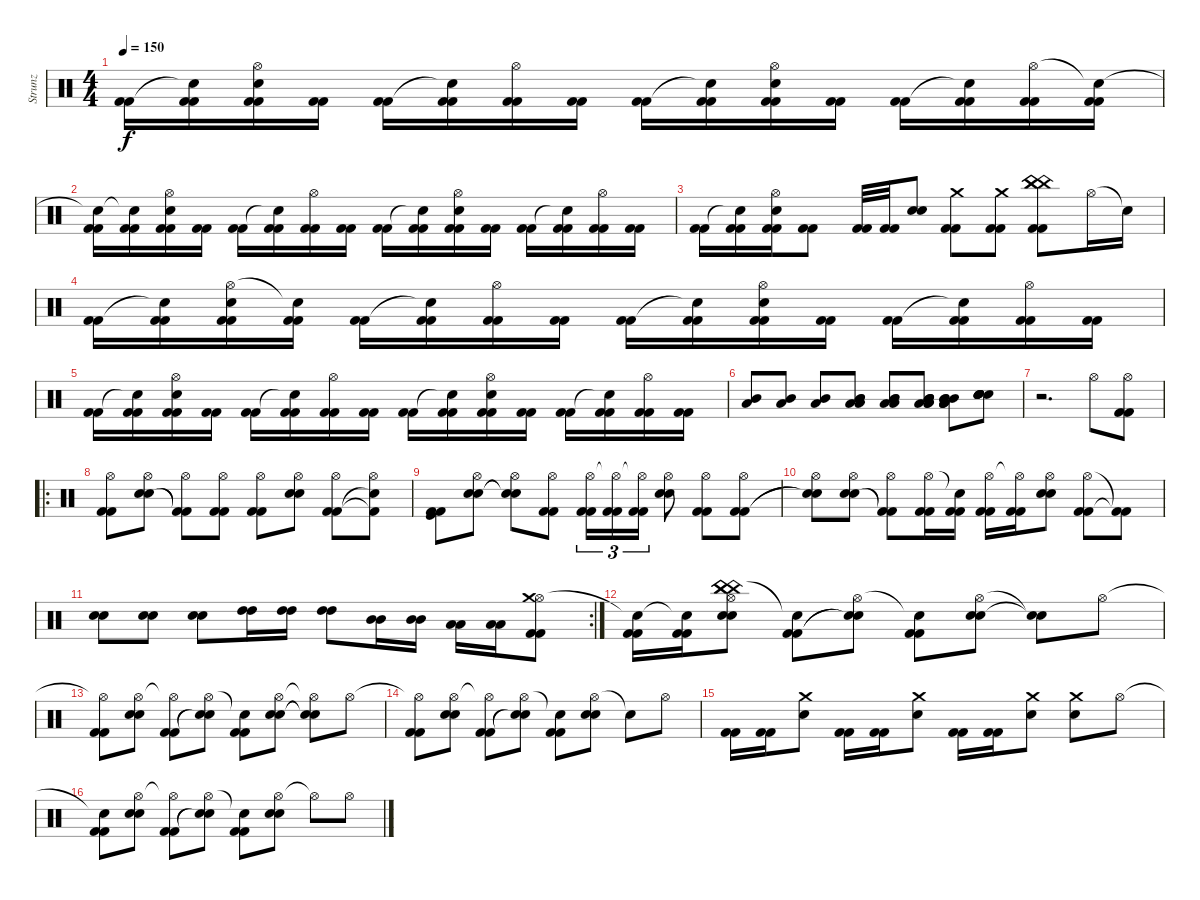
\track ("Strunz" "Strunz") {instrument percussion}
\staff {score}
\articulation defaults
\ts (4 4)
\tempo 150
\clef neutral
\ks c
("Kick (hit) 2" "Kick (hit) 2").16{dy f} ("Snare (hit)"{t} "Kick (hit) 2" "Kick (hit) 2").16 ("Hi-Hat (open)" "Snare (hit) 2" "Kick (hit) 2" "Kick (hit) 2").16 ("Kick (hit) 2" "Kick (hit) 2").16 ("Kick (hit) 2" "Kick (hit) 2").16 ("Snare (hit)"{t} "Kick (hit) 2" "Kick (hit) 2").16 ("Hi-Hat (open)" "Kick (hit) 2" "Kick (hit) 2").16 ("Kick (hit) 2" "Kick (hit) 2").16 ("Kick (hit) 2" "Kick (hit) 2").16 ("Snare (hit)"{t} "Kick (hit) 2" "Kick (hit) 2").16 ("Hi-Hat (open)" "Snare (hit) 2" "Kick (hit) 2" "Kick (hit) 2").16 ("Kick (hit) 2" "Kick (hit) 2").16 ("Kick (hit) 2" "Kick (hit) 2").16 ("Snare (hit)"{t} "Kick (hit) 2" "Kick (hit) 2").16 ("Hi-Hat (open)" "Kick (hit) 2" "Kick (hit) 2").16 ("Snare (hit)"{t} "Kick (hit) 2" "Kick (hit) 2").16 |
("Snare (hit)"{t} "Kick (hit) 2" "Kick (hit) 2").16 ("Snare (hit)"{t} "Kick (hit) 2" "Kick (hit) 2").16 ("Hi-Hat (open)" "Snare (hit) 2" "Kick (hit) 2" "Kick (hit) 2").16 ("Kick (hit) 2" "Kick (hit) 2").16 ("Kick (hit) 2" "Kick (hit) 2").16 ("Snare (hit)"{t} "Kick (hit) 2" "Kick (hit) 2").16 ("Hi-Hat (open)" "Kick (hit) 2" "Kick (hit) 2").16 ("Kick (hit) 2" "Kick (hit) 2").16 ("Kick (hit) 2" "Kick (hit) 2").16 ("Snare (hit)"{t} "Kick (hit) 2" "Kick (hit) 2").16 ("Hi-Hat (open)" "Snare (hit) 2" "Kick (hit) 2" "Kick (hit) 2").16 ("Kick (hit) 2" "Kick (hit) 2").16 ("Kick (hit) 2" "Kick (hit) 2").16 ("Snare (hit)"{t} "Kick (hit) 2" "Kick (hit) 2").16 ("Hi-Hat (open)" "Kick (hit) 2" "Kick (hit) 2").16 ("Kick (hit) 2" "Kick (hit) 2").16 |
("Kick (hit) 2" "Kick (hit) 2").16 ("Snare (hit)"{t} "Kick (hit) 2" "Kick (hit) 2").16 ("Hi-Hat (open)" "Snare (hit) 2" "Kick (hit) 2" "Kick (hit) 2").16 ("Kick (hit) 2" "Kick (hit) 2").8 ("Kick (hit) 2" "Kick (hit) 2").32 ("Kick (hit) 2" "Kick (hit) 2").32 ("Snare (hit) 2" "Snare (hit) 2").8 ("Crash medium (hit)" "Kick (hit) 2" "Kick (hit) 2").8 ("Crash medium (hit)" "Kick (hit) 2" "Kick (hit) 2").8 ("China (hit)" "China (hit)" "China (hit)" "Kick (hit) 2" "Kick (hit) 2").8 "Hi-Hat (open)".16 "Snare (hit)"{t}.16 |
("Kick (hit) 2" "Kick (hit) 2").16 ("Snare (hit)"{t} "Kick (hit) 2" "Kick (hit) 2").16 ("Hi-Hat (open)" "Snare (hit) 2" "Kick (hit) 2" "Kick (hit) 2").16 ("Snare (hit)"{t} "Kick (hit) 2" "Kick (hit) 2").16 ("Kick (hit) 2" "Kick (hit) 2").16 ("Snare (hit)"{t} "Kick (hit) 2" "Kick (hit) 2").16 ("Hi-Hat (open)" "Kick (hit) 2" "Kick (hit) 2").16 ("Kick (hit) 2" "Kick (hit) 2").16 ("Kick (hit) 2" "Kick (hit) 2").16 ("Snare (hit)"{t} "Kick (hit) 2" "Kick (hit) 2").16 ("Hi-Hat (open)" "Snare (hit) 2" "Kick (hit) 2" "Kick (hit) 2").16 ("Kick (hit) 2" "Kick (hit) 2").16 ("Kick (hit) 2" "Kick (hit) 2").16 ("Snare (hit)"{t} "Kick (hit) 2" "Kick (hit) 2").16 ("Hi-Hat (open)" "Kick (hit) 2" "Kick (hit) 2").16 ("Kick (hit) 2" "Kick (hit) 2").16 |
("Kick (hit) 2" "Kick (hit) 2").16 ("Snare (hit)"{t} "Kick (hit) 2" "Kick (hit) 2").16 ("Hi-Hat (open)" "Snare (hit) 2" "Kick (hit) 2" "Kick (hit) 2").16 ("Kick (hit) 2" "Kick (hit) 2").16 ("Kick (hit) 2" "Kick (hit) 2").16 ("Snare (hit)"{t} "Kick (hit) 2" "Kick (hit) 2").16 ("Hi-Hat (open)" "Kick (hit) 2" "Kick (hit) 2").16 ("Kick (hit) 2" "Kick (hit) 2").16 ("Kick (hit) 2" "Kick (hit) 2").16 ("Snare (hit)"{t} "Kick (hit) 2" "Kick (hit) 2").16 ("Hi-Hat (open)" "Snare (hit) 2" "Kick (hit) 2" "Kick (hit) 2").16 ("Kick (hit) 2" "Kick (hit) 2").16 ("Kick (hit) 2" "Kick (hit) 2").16 ("Snare (hit)"{t} "Kick (hit) 2" "Kick (hit) 2").16 ("Hi-Hat (open)" "Kick (hit) 2" "Kick (hit) 2").16 ("Kick (hit) 2" "Kick (hit) 2").16 |
("Mid Tom (hit)" "Low Tom (hit)").8 ("Mid Tom (hit)" "Low Tom (hit)").8 ("Mid Tom (hit)" "Low Tom (hit)").8 ("Low Tom (hit)" "Low Tom (hit)" "Mid Tom (hit)" "Mid Tom (hit)").8 ("Low Tom (hit)" "Low Tom (hit)" "Mid Tom (hit)" "Mid Tom (hit)").8 ("Low Tom (hit)" "Low Tom (hit)" "Low Tom (hit)" "Mid Tom (hit)" "Mid Tom (hit)" "Mid Tom (hit)").8 ("Low Tom (hit)" "Low Tom (hit)" "Low Tom (hit)" "Mid Tom (hit)" "Mid Tom (hit)" "Mid Tom (hit)").8 ("Snare (hit) 2" "Snare (hit) 2" "Snare (hit) 2" "Snare (hit) 2" "Snare (hit) 2" "Snare (hit) 2").8 |
r.2{d} "Hi-Hat (open)".8 ("Hi-Hat (open)" "Kick (hit) 2" "Kick (hit) 2").8 |
\ro
("Hi-Hat (open)" "Kick (hit) 2" "Kick (hit) 2").8 ("Hi-Hat (open)" "Snare (hit) 2" "Snare (hit) 2").8 ("Hi-Hat (open)" "Kick (hit) 2"{t} "Kick (hit) 2"{t}).8 ("Hi-Hat (open)" "Kick (hit) 2" "Kick (hit) 2").8 ("Hi-Hat (open)" "Kick (hit) 2" "Kick (hit) 2").8 ("Hi-Hat (open)" "Snare (hit) 2" "Snare (hit) 2").8 ("Hi-Hat (open)" "Kick (hit) 2" "Kick (hit) 2").8 ("Hi-Hat (open)" "Kick (hit) 2"{t} "Snare (hit)"{t}).8 |
("Kick (hit)" "Kick (hit) 2" "Kick (hit) 2").8 ("Hi-Hat (open)" "Snare (hit) 2" "Snare (hit) 2").8 ("Hi-Hat (open)" "Snare (hit)"{t} "Snare (hit)"{t}).8 ("Hi-Hat (open)" "Kick (hit) 2" "Kick (hit) 2").8 ("Hi-Hat (open)" "Kick (hit) 2" "Kick (hit) 2").16{tu (3 2)} ("Hi-Hat (open)"{t} "Kick (hit) 2" "Kick (hit) 2").16{tu (3 2)} ("Hi-Hat (open)"{t} "Kick (hit) 2" "Kick (hit) 2").16{tu (3 2)} ("Hi-Hat (open)" "Snare (hit) 2" "Snare (hit) 2").8 ("Hi-Hat (open)" "Kick (hit) 2" "Kick (hit) 2").8 ("Hi-Hat (open)" "Kick (hit) 2" "Kick (hit) 2").8 |
("Hi-Hat (open)" "Snare (hit) 2"{t} "Snare (hit) 2"{t}).8 ("Hi-Hat (open)" "Snare (hit) 2" "Snare (hit) 2").8 ("Hi-Hat (open)" "Kick (hit) 2"{t} "Kick (hit) 2"{t}).8 ("Hi-Hat (open)" "Kick (hit) 2" "Kick (hit) 2").16 ("Snare (hit)"{t} "Kick (hit) 2" "Kick (hit) 2").16 ("Hi-Hat (open)" "Kick (hit) 2" "Kick (hit) 2").16 ("Hi-Hat (open)"{t} "Kick (hit) 2" "Kick (hit) 2").16 ("Hi-Hat (open)" "Snare (hit) 2" "Snare (hit) 2").8 ("Hi-Hat (open)" "Kick (hit) 2" "Kick (hit) 2").8 ("Kick (hit) 2"{t} "Kick (hit) 2"{t}).8 |
\rc 2
("Snare (hit) 2" "Snare (hit) 2").8 ("Snare (hit) 2" "Snare (hit) 2").8 ("Snare (hit) 2" "Snare (hit) 2").8 ("High Tom (hit)" "High Tom (hit)").16 ("High Tom (hit)" "High Tom (hit)").16 ("High Tom (hit)" "High Tom (hit)").8 ("Mid Tom (hit)" "Mid Tom (hit)").16 ("Mid Tom (hit)" "Mid Tom (hit)").16 ("Low Tom (hit)" "Low Tom (hit)").16 ("Low Tom (hit)" "Low Tom (hit)").16 ("Hi-Hat (open)" "Crash medium (hit)" "Kick (hit) 2" "Kick (hit) 2").8 |
("Snare (hit)"{t} "Kick (hit) 2" "Kick (hit) 2").16 ("Snare (hit)"{t} "Kick (hit) 2" "Kick (hit) 2").16 ("China (hit)" "Hi-Hat (open)" "China (hit)" "Snare (hit) 2" "Snare (hit) 2" "China (hit)").8 ("Snare (hit)"{t} "Kick (hit) 2" "Kick (hit) 2").8 ("Hi-Hat (open)" "Snare (hit)"{t} "Snare (hit)"{t}).8 ("Snare (hit)"{t} "Kick (hit) 2" "Kick (hit) 2").8 ("Hi-Hat (open)" "Snare (hit) 2" "Snare (hit) 2").8 ("Snare (hit)"{t} "Snare (hit)"{t}).8 "Hi-Hat (open)".8 |
("Hi-Hat (open)"{t} "Kick (hit) 2" "Kick (hit) 2").8 ("Hi-Hat (open)" "Snare (hit) 2" "Snare (hit) 2").8 ("Hi-Hat (open)"{t} "Kick (hit) 2" "Kick (hit) 2").8 ("Hi-Hat (open)" "Snare (hit)"{t} "Snare (hit)"{t}).8 ("Snare (hit)"{t} "Kick (hit) 2" "Kick (hit) 2").8 ("Hi-Hat (open)" "Snare (hit) 2" "Snare (hit) 2").8 ("Hi-Hat (open)"{t} "Snare (hit)"{t} "Snare (hit)"{t}).8 "Hi-Hat (open)".8 |
("Hi-Hat (open)"{t} "Kick (hit) 2" "Kick (hit) 2").8 ("Hi-Hat (open)" "Snare (hit) 2" "Snare (hit) 2").8 ("Hi-Hat (open)"{t} "Kick (hit) 2" "Kick (hit) 2").8 ("Hi-Hat (open)" "Snare (hit)"{t} "Snare (hit)"{t}).8 ("Snare (hit)"{t} "Kick (hit) 2" "Kick (hit) 2").8 ("Hi-Hat (open)" "Snare (hit) 2" "Snare (hit) 2").8 "Snare (hit)"{t}.8 "Hi-Hat (open)".8 |
("Kick (hit) 2" "Kick (hit) 2").16 ("Kick (hit) 2" "Kick (hit) 2").16 ("Crash medium (hit)" "Snare (hit) 2").8 ("Kick (hit) 2" "Kick (hit) 2").16 ("Kick (hit) 2" "Kick (hit) 2").16 ("Crash medium (hit)" "Snare (hit) 2").8 ("Kick (hit) 2" "Kick (hit) 2").16 ("Kick (hit) 2" "Kick (hit) 2").16 ("Crash medium (hit)" "Snare (hit) 2").8 ("Crash medium (hit)" "Snare (hit) 2").8 "Hi-Hat (open)".8 |
("Snare (hit)"{t} "Kick (hit) 2" "Kick (hit) 2").8 ("Hi-Hat (open)" "Snare (hit) 2" "Snare (hit) 2").8 ("Hi-Hat (open)"{t} "Kick (hit) 2" "Kick (hit) 2").8 ("Hi-Hat (open)" "Snare (hit)"{t} "Snare (hit)"{t}).8 ("Snare (hit)"{t} "Kick (hit) 2" "Kick (hit) 2").8 ("Hi-Hat (open)" "Snare (hit) 2" "Snare (hit) 2").8 "Hi-Hat (open)"{t}.8 "Hi-Hat (open)".8
